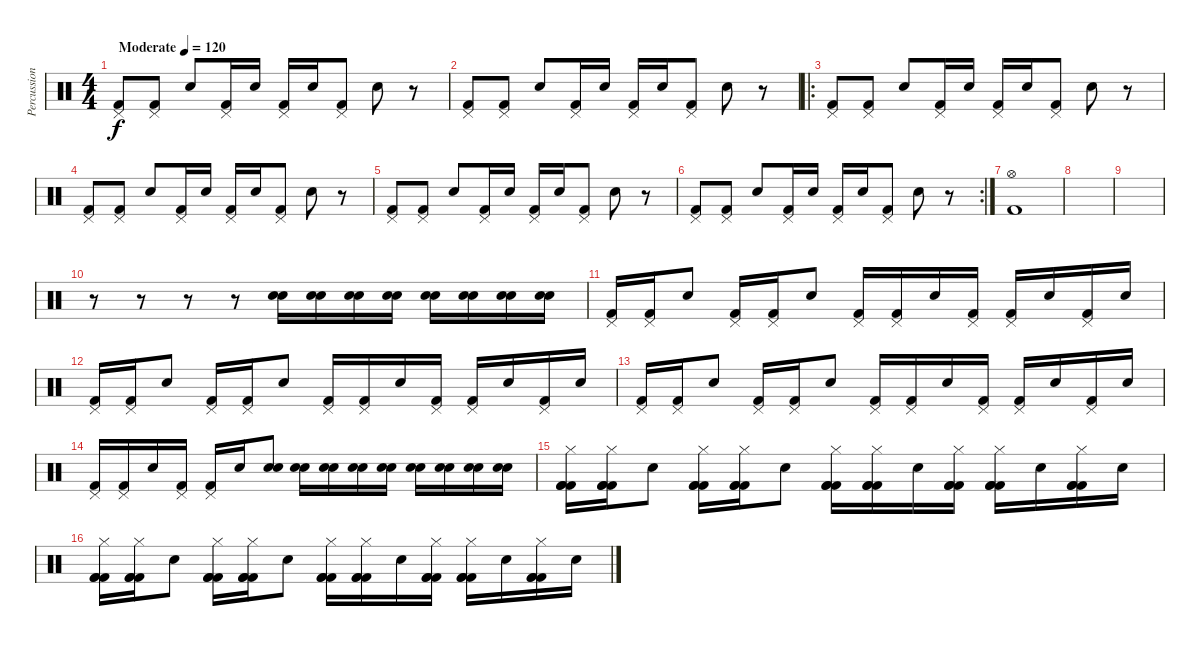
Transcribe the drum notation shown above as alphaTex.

\track ("Percussion" "Percussion") {instrument percussion}
\staff {score}
\articulation defaults
\ts (4 4)
\tempo (120 "Moderate")
\clef neutral
\ks c
("Pedal Hi-Hat (hit)" "Kick (hit) 2").8{dy f} ("Pedal Hi-Hat (hit)" "Kick (hit) 2").8 "Snare (hit) 2".8 ("Pedal Hi-Hat (hit)" "Kick (hit) 2").16 "Snare (hit) 2".16 ("Pedal Hi-Hat (hit)" "Kick (hit) 2").16 "Snare (hit) 2".16 ("Pedal Hi-Hat (hit)" "Kick (hit) 2").8 "Snare (hit) 2".8 r.8 |
("Pedal Hi-Hat (hit)" "Kick (hit) 2").8 ("Pedal Hi-Hat (hit)" "Kick (hit) 2").8 "Snare (hit) 2".8 ("Pedal Hi-Hat (hit)" "Kick (hit) 2").16 "Snare (hit) 2".16 ("Pedal Hi-Hat (hit)" "Kick (hit) 2").16 "Snare (hit) 2".16 ("Pedal Hi-Hat (hit)" "Kick (hit) 2").8 "Snare (hit) 2".8 r.8 |
\ro
("Pedal Hi-Hat (hit)" "Kick (hit) 2").8 ("Pedal Hi-Hat (hit)" "Kick (hit) 2").8 "Snare (hit) 2".8 ("Pedal Hi-Hat (hit)" "Kick (hit) 2").16 "Snare (hit) 2".16 ("Pedal Hi-Hat (hit)" "Kick (hit) 2").16 "Snare (hit) 2".16 ("Pedal Hi-Hat (hit)" "Kick (hit) 2").8 "Snare (hit) 2".8 r.8 |
("Pedal Hi-Hat (hit)" "Kick (hit) 2").8 ("Pedal Hi-Hat (hit)" "Kick (hit) 2").8 "Snare (hit) 2".8 ("Pedal Hi-Hat (hit)" "Kick (hit) 2").16 "Snare (hit) 2".16 ("Pedal Hi-Hat (hit)" "Kick (hit) 2").16 "Snare (hit) 2".16 ("Pedal Hi-Hat (hit)" "Kick (hit) 2").8 "Snare (hit) 2".8 r.8 |
("Pedal Hi-Hat (hit)" "Kick (hit) 2").8 ("Pedal Hi-Hat (hit)" "Kick (hit) 2").8 "Snare (hit) 2".8 ("Pedal Hi-Hat (hit)" "Kick (hit) 2").16 "Snare (hit) 2".16 ("Pedal Hi-Hat (hit)" "Kick (hit) 2").16 "Snare (hit) 2".16 ("Pedal Hi-Hat (hit)" "Kick (hit) 2").8 "Snare (hit) 2".8 r.8 |
\rc 2
("Pedal Hi-Hat (hit)" "Kick (hit) 2").8 ("Pedal Hi-Hat (hit)" "Kick (hit) 2").8 "Snare (hit) 2".8 ("Pedal Hi-Hat (hit)" "Kick (hit) 2").16 "Snare (hit) 2".16 ("Pedal Hi-Hat (hit)" "Kick (hit) 2").16 "Snare (hit) 2".16 ("Pedal Hi-Hat (hit)" "Kick (hit) 2").8 "Snare (hit) 2".8 r.8 |
("Hi-Hat (open)" "Kick (hit) 2").1 |
|
|
r.8 r.8 r.8 r.8 ("Snare (hit) 2" "Snare (hit) 2").16 ("Snare (hit) 2" "Snare (hit) 2").16 ("Snare (hit) 2" "Snare (hit) 2").16 ("Snare (hit) 2" "Snare (hit) 2").16 ("Snare (hit) 2" "Snare (hit) 2").16 ("Snare (hit) 2" "Snare (hit) 2").16 ("Snare (hit) 2" "Snare (hit) 2").16 ("Snare (hit) 2" "Snare (hit) 2").16 |
("Pedal Hi-Hat (hit)" "Kick (hit) 2").16 ("Pedal Hi-Hat (hit)" "Kick (hit) 2").16 "Snare (hit) 2".8 ("Pedal Hi-Hat (hit)" "Kick (hit) 2").16 ("Pedal Hi-Hat (hit)" "Kick (hit) 2").16 "Snare (hit) 2".8 ("Pedal Hi-Hat (hit)" "Kick (hit) 2").16 ("Pedal Hi-Hat (hit)" "Kick (hit) 2").16 "Snare (hit) 2".16 ("Pedal Hi-Hat (hit)" "Kick (hit) 2").16 ("Pedal Hi-Hat (hit)" "Kick (hit) 2").16 "Snare (hit) 2".16 ("Pedal Hi-Hat (hit)" "Kick (hit) 2").16 "Snare (hit) 2".16 |
("Pedal Hi-Hat (hit)" "Kick (hit) 2").16 ("Pedal Hi-Hat (hit)" "Kick (hit) 2").16 "Snare (hit) 2".8 ("Pedal Hi-Hat (hit)" "Kick (hit) 2").16 ("Pedal Hi-Hat (hit)" "Kick (hit) 2").16 "Snare (hit) 2".8 ("Pedal Hi-Hat (hit)" "Kick (hit) 2").16 ("Pedal Hi-Hat (hit)" "Kick (hit) 2").16 "Snare (hit) 2".16 ("Pedal Hi-Hat (hit)" "Kick (hit) 2").16 ("Pedal Hi-Hat (hit)" "Kick (hit) 2").16 "Snare (hit) 2".16 ("Pedal Hi-Hat (hit)" "Kick (hit) 2").16 "Snare (hit) 2".16 |
("Pedal Hi-Hat (hit)" "Kick (hit) 2").16 ("Pedal Hi-Hat (hit)" "Kick (hit) 2").16 "Snare (hit) 2".8 ("Pedal Hi-Hat (hit)" "Kick (hit) 2").16 ("Pedal Hi-Hat (hit)" "Kick (hit) 2").16 "Snare (hit) 2".8 ("Pedal Hi-Hat (hit)" "Kick (hit) 2").16 ("Pedal Hi-Hat (hit)" "Kick (hit) 2").16 "Snare (hit) 2".16 ("Pedal Hi-Hat (hit)" "Kick (hit) 2").16 ("Pedal Hi-Hat (hit)" "Kick (hit) 2").16 "Snare (hit) 2".16 ("Pedal Hi-Hat (hit)" "Kick (hit) 2").16 "Snare (hit) 2".16 |
("Pedal Hi-Hat (hit)" "Kick (hit) 2").16 ("Pedal Hi-Hat (hit)" "Kick (hit) 2").16 "Snare (hit) 2".16 ("Pedal Hi-Hat (hit)" "Kick (hit) 2").16 ("Pedal Hi-Hat (hit)" "Kick (hit) 2").16 "Snare (hit) 2".16 ("Snare (hit) 2" "Snare (hit) 2").8 ("Snare (hit) 2" "Snare (hit) 2").16 ("Snare (hit) 2" "Snare (hit) 2").16 ("Snare (hit) 2" "Snare (hit) 2").16 ("Snare (hit) 2" "Snare (hit) 2").16 ("Snare (hit) 2" "Snare (hit) 2").16 ("Snare (hit) 2" "Snare (hit) 2").16 ("Snare (hit) 2" "Snare (hit) 2").16 ("Snare (hit) 2" "Snare (hit) 2").16 |
("Kick (hit) 2" "Kick (hit) 2" "Hi-Hat (closed)" "Kick (hit) 2").16 ("Kick (hit) 2" "Kick (hit) 2" "Hi-Hat (closed)" "Kick (hit) 2").16 "Snare (hit) 2".8 ("Kick (hit) 2" "Kick (hit) 2" "Hi-Hat (closed)" "Kick (hit) 2").16 ("Kick (hit) 2" "Kick (hit) 2" "Hi-Hat (closed)" "Kick (hit) 2").16 "Snare (hit) 2".8 ("Kick (hit) 2" "Kick (hit) 2" "Hi-Hat (closed)" "Kick (hit) 2").16 ("Kick (hit) 2" "Kick (hit) 2" "Hi-Hat (closed)" "Kick (hit) 2").16 "Snare (hit) 2".16 ("Kick (hit) 2" "Kick (hit) 2" "Hi-Hat (closed)" "Kick (hit) 2").16 ("Kick (hit) 2" "Kick (hit) 2" "Hi-Hat (closed)" "Kick (hit) 2").16 "Snare (hit) 2".16 ("Kick (hit) 2" "Kick (hit) 2" "Hi-Hat (closed)" "Kick (hit) 2").16 "Snare (hit) 2".16 |
("Kick (hit) 2" "Kick (hit) 2" "Hi-Hat (closed)" "Kick (hit) 2").16 ("Kick (hit) 2" "Kick (hit) 2" "Hi-Hat (closed)" "Kick (hit) 2").16 "Snare (hit) 2".8 ("Kick (hit) 2" "Kick (hit) 2" "Hi-Hat (closed)" "Kick (hit) 2").16 ("Kick (hit) 2" "Kick (hit) 2" "Hi-Hat (closed)" "Kick (hit) 2").16 "Snare (hit) 2".8 ("Kick (hit) 2" "Kick (hit) 2" "Hi-Hat (closed)" "Kick (hit) 2").16 ("Kick (hit) 2" "Kick (hit) 2" "Hi-Hat (closed)" "Kick (hit) 2").16 "Snare (hit) 2".16 ("Kick (hit) 2" "Kick (hit) 2" "Hi-Hat (closed)" "Kick (hit) 2").16 ("Kick (hit) 2" "Kick (hit) 2" "Hi-Hat (closed)" "Kick (hit) 2").16 "Snare (hit) 2".16 ("Kick (hit) 2" "Kick (hit) 2" "Hi-Hat (closed)" "Kick (hit) 2").16 "Snare (hit) 2".16
